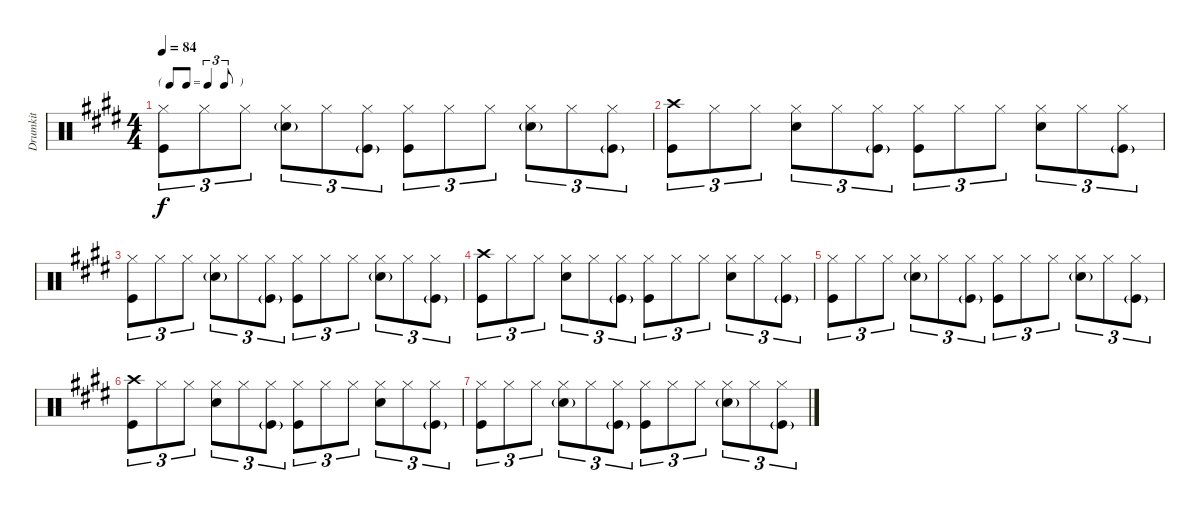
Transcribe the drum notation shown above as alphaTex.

\track ("Drumkit" "Drumkit") {instrument percussion}
\staff {score}
\articulation defaults
\ts (4 4)
\tf triplet8th
\tempo 84
\clef neutral
\ks e
("Kick (hit)" "Hi-Hat (closed)").8{tu (3 2) dy f} "Hi-Hat (closed)".8{tu (3 2)} "Hi-Hat (closed)".8{tu (3 2)} ("Hi-Hat (closed)" "Snare (hit) 2"{g}).8{tu (3 2)} "Hi-Hat (closed)".8{tu (3 2)} ("Hi-Hat (closed)" "Kick (hit)"{g}).8{tu (3 2)} ("Kick (hit)" "Hi-Hat (closed)").8{tu (3 2)} "Hi-Hat (closed)".8{tu (3 2)} "Hi-Hat (closed)".8{tu (3 2)} ("Snare (hit) 2"{g} "Hi-Hat (closed)").8{tu (3 2)} "Hi-Hat (closed)".8{tu (3 2)} ("Hi-Hat (closed)" "Kick (hit)"{g}).8{tu (3 2)} |
("Kick (hit)" "Crash high (hit)").8{tu (3 2)} "Hi-Hat (closed)".8{tu (3 2)} "Hi-Hat (closed)".8{tu (3 2)} ("Hi-Hat (closed)" "Snare (hit) 2").8{tu (3 2)} "Hi-Hat (closed)".8{tu (3 2)} ("Hi-Hat (closed)" "Kick (hit)"{g}).8{tu (3 2)} ("Kick (hit)" "Hi-Hat (closed)").8{tu (3 2)} "Hi-Hat (closed)".8{tu (3 2)} "Hi-Hat (closed)".8{tu (3 2)} ("Snare (hit) 2" "Hi-Hat (closed)").8{tu (3 2)} "Hi-Hat (closed)".8{tu (3 2)} ("Hi-Hat (closed)" "Kick (hit)"{g}).8{tu (3 2)} |
("Kick (hit)" "Hi-Hat (closed)").8{tu (3 2)} "Hi-Hat (closed)".8{tu (3 2)} "Hi-Hat (closed)".8{tu (3 2)} ("Hi-Hat (closed)" "Snare (hit) 2"{g}).8{tu (3 2)} "Hi-Hat (closed)".8{tu (3 2)} ("Hi-Hat (closed)" "Kick (hit)"{g}).8{tu (3 2)} ("Kick (hit)" "Hi-Hat (closed)").8{tu (3 2)} "Hi-Hat (closed)".8{tu (3 2)} "Hi-Hat (closed)".8{tu (3 2)} ("Snare (hit) 2"{g} "Hi-Hat (closed)").8{tu (3 2)} "Hi-Hat (closed)".8{tu (3 2)} ("Hi-Hat (closed)" "Kick (hit)"{g}).8{tu (3 2)} |
("Kick (hit)" "Crash high (hit)").8{tu (3 2)} "Hi-Hat (closed)".8{tu (3 2)} "Hi-Hat (closed)".8{tu (3 2)} ("Hi-Hat (closed)" "Snare (hit) 2").8{tu (3 2)} "Hi-Hat (closed)".8{tu (3 2)} ("Hi-Hat (closed)" "Kick (hit)"{g}).8{tu (3 2)} ("Kick (hit)" "Hi-Hat (closed)").8{tu (3 2)} "Hi-Hat (closed)".8{tu (3 2)} "Hi-Hat (closed)".8{tu (3 2)} ("Snare (hit) 2" "Hi-Hat (closed)").8{tu (3 2)} "Hi-Hat (closed)".8{tu (3 2)} ("Hi-Hat (closed)" "Kick (hit)"{g}).8{tu (3 2)} |
("Kick (hit)" "Hi-Hat (closed)").8{tu (3 2)} "Hi-Hat (closed)".8{tu (3 2)} "Hi-Hat (closed)".8{tu (3 2)} ("Hi-Hat (closed)" "Snare (hit) 2"{g}).8{tu (3 2)} "Hi-Hat (closed)".8{tu (3 2)} ("Hi-Hat (closed)" "Kick (hit)"{g}).8{tu (3 2)} ("Kick (hit)" "Hi-Hat (closed)").8{tu (3 2)} "Hi-Hat (closed)".8{tu (3 2)} "Hi-Hat (closed)".8{tu (3 2)} ("Snare (hit) 2"{g} "Hi-Hat (closed)").8{tu (3 2)} "Hi-Hat (closed)".8{tu (3 2)} ("Hi-Hat (closed)" "Kick (hit)"{g}).8{tu (3 2)} |
("Kick (hit)" "Crash high (hit)").8{tu (3 2)} "Hi-Hat (closed)".8{tu (3 2)} "Hi-Hat (closed)".8{tu (3 2)} ("Hi-Hat (closed)" "Snare (hit) 2").8{tu (3 2)} "Hi-Hat (closed)".8{tu (3 2)} ("Hi-Hat (closed)" "Kick (hit)"{g}).8{tu (3 2)} ("Kick (hit)" "Hi-Hat (closed)").8{tu (3 2)} "Hi-Hat (closed)".8{tu (3 2)} "Hi-Hat (closed)".8{tu (3 2)} ("Snare (hit) 2" "Hi-Hat (closed)").8{tu (3 2)} "Hi-Hat (closed)".8{tu (3 2)} ("Hi-Hat (closed)" "Kick (hit)"{g}).8{tu (3 2)} |
("Kick (hit)" "Hi-Hat (closed)").8{tu (3 2)} "Hi-Hat (closed)".8{tu (3 2)} "Hi-Hat (closed)".8{tu (3 2)} ("Hi-Hat (closed)" "Snare (hit) 2"{g}).8{tu (3 2)} "Hi-Hat (closed)".8{tu (3 2)} ("Hi-Hat (closed)" "Kick (hit)"{g}).8{tu (3 2)} ("Kick (hit)" "Hi-Hat (closed)").8{tu (3 2)} "Hi-Hat (closed)".8{tu (3 2)} "Hi-Hat (closed)".8{tu (3 2)} ("Snare (hit) 2"{g} "Hi-Hat (closed)").8{tu (3 2)} "Hi-Hat (closed)".8{tu (3 2)} ("Hi-Hat (closed)" "Kick (hit)"{g}).8{tu (3 2)}
